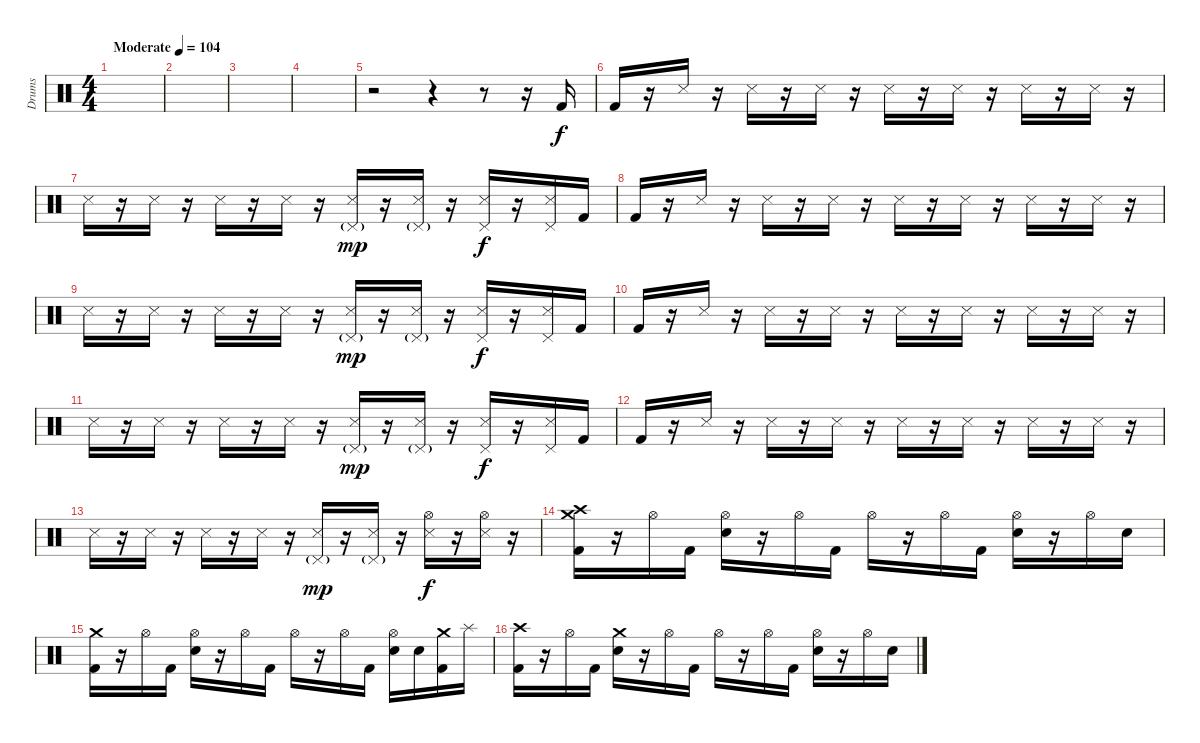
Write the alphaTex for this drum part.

\track ("Drums" "Drums") {instrument percussion}
\staff {score}
\articulation defaults
\ts (4 4)
\tempo (104 "Moderate")
\clef neutral
\ks c
|
|
|
|
r.2 r.4 r.8 r.16 "Kick (hit) 2".16 |
"Kick (hit) 2".16 r.16 "Snare (side stick) 3".16 r.16 "Snare (side stick) 3".16 r.16 "Snare (side stick) 3".16 r.16 "Snare (side stick) 3".16 r.16 "Snare (side stick) 3".16 r.16 "Snare (side stick) 3".16 r.16 "Snare (side stick) 3".16 r.16 |
"Snare (side stick) 3".16 r.16 "Snare (side stick) 3".16 r.16 "Snare (side stick) 3".16 r.16 "Snare (side stick) 3".16 r.16 ("Snare (side stick) 3" "Pedal Hi-Hat (hit)"{g}).16{dy mp} r.16 ("Snare (side stick) 3" "Pedal Hi-Hat (hit)"{g}).16 r.16 ("Snare (side stick) 3" "Pedal Hi-Hat (hit)").16{dy f} r.16 ("Snare (side stick) 3" "Pedal Hi-Hat (hit)").16 "Kick (hit) 2".16 |
"Kick (hit) 2".16 r.16 "Snare (side stick) 3".16 r.16 "Snare (side stick) 3".16 r.16 "Snare (side stick) 3".16 r.16 "Snare (side stick) 3".16 r.16 "Snare (side stick) 3".16 r.16 "Snare (side stick) 3".16 r.16 "Snare (side stick) 3".16 r.16 |
"Snare (side stick) 3".16 r.16 "Snare (side stick) 3".16 r.16 "Snare (side stick) 3".16 r.16 "Snare (side stick) 3".16 r.16 ("Snare (side stick) 3" "Pedal Hi-Hat (hit)"{g}).16{dy mp} r.16 ("Snare (side stick) 3" "Pedal Hi-Hat (hit)"{g}).16 r.16 ("Snare (side stick) 3" "Pedal Hi-Hat (hit)").16{dy f} r.16 ("Snare (side stick) 3" "Pedal Hi-Hat (hit)").16 "Kick (hit) 2".16 |
"Kick (hit) 2".16 r.16 "Snare (side stick) 3".16 r.16 "Snare (side stick) 3".16 r.16 "Snare (side stick) 3".16 r.16 "Snare (side stick) 3".16 r.16 "Snare (side stick) 3".16 r.16 "Snare (side stick) 3".16 r.16 "Snare (side stick) 3".16 r.16 |
"Snare (side stick) 3".16 r.16 "Snare (side stick) 3".16 r.16 "Snare (side stick) 3".16 r.16 "Snare (side stick) 3".16 r.16 ("Snare (side stick) 3" "Pedal Hi-Hat (hit)"{g}).16{dy mp} r.16 ("Snare (side stick) 3" "Pedal Hi-Hat (hit)"{g}).16 r.16 ("Snare (side stick) 3" "Pedal Hi-Hat (hit)").16{dy f} r.16 ("Snare (side stick) 3" "Pedal Hi-Hat (hit)").16 "Kick (hit) 2".16 |
"Kick (hit) 2".16 r.16 "Snare (side stick) 3".16 r.16 "Snare (side stick) 3".16 r.16 "Snare (side stick) 3".16 r.16 "Snare (side stick) 3".16 r.16 "Snare (side stick) 3".16 r.16 "Snare (side stick) 3".16 r.16 "Snare (side stick) 3".16 r.16 |
"Snare (side stick) 3".16 r.16 "Snare (side stick) 3".16 r.16 "Snare (side stick) 3".16 r.16 "Snare (side stick) 3".16 r.16 ("Snare (side stick) 3" "Pedal Hi-Hat (hit)"{g}).16{dy mp} r.16 ("Snare (side stick) 3" "Pedal Hi-Hat (hit)"{g}).16 r.16 ("Snare (side stick) 3" "Hi-Hat (open)").16{dy f} r.16 ("Snare (side stick) 3" "Hi-Hat (open)").16 r.16 |
("Crash high (hit)" "Crash medium (hit)" "Kick (hit) 2").16 r.16 "Hi-Hat (open)".16 "Kick (hit) 2".16 ("Hi-Hat (open)" "Snare (hit) 2").16 r.16 "Hi-Hat (open)".16 "Kick (hit) 2".16 "Hi-Hat (open)".16 r.16 "Hi-Hat (open)".16 "Kick (hit) 2".16 ("Hi-Hat (open)" "Snare (hit) 2").16 r.16 "Hi-Hat (open)".16 "Snare (hit) 2".16 |
("Crash medium (hit)" "Kick (hit) 2").16 r.16 "Hi-Hat (open)".16 "Kick (hit) 2".16 ("Hi-Hat (open)" "Snare (hit) 2").16 r.16 "Hi-Hat (open)".16 "Kick (hit) 2".16 "Hi-Hat (open)".16 r.16 "Hi-Hat (open)".16 "Kick (hit) 2".16 ("Hi-Hat (open)" "Snare (hit) 2").16 "Snare (hit) 2".16 ("Crash medium (hit)" "Kick (hit) 2").16 "Splash (hit)".16 |
("Crash high (hit)" "Kick (hit) 2").16 r.16 "Hi-Hat (open)".16 "Kick (hit) 2".16 ("Crash medium (hit)" "Snare (hit) 2").16 r.16 "Hi-Hat (open)".16 "Kick (hit) 2".16 "Hi-Hat (open)".16 r.16 "Hi-Hat (open)".16 "Kick (hit) 2".16 ("Hi-Hat (open)" "Snare (hit) 2").16 r.16 "Hi-Hat (open)".16 "Snare (hit) 2".16
